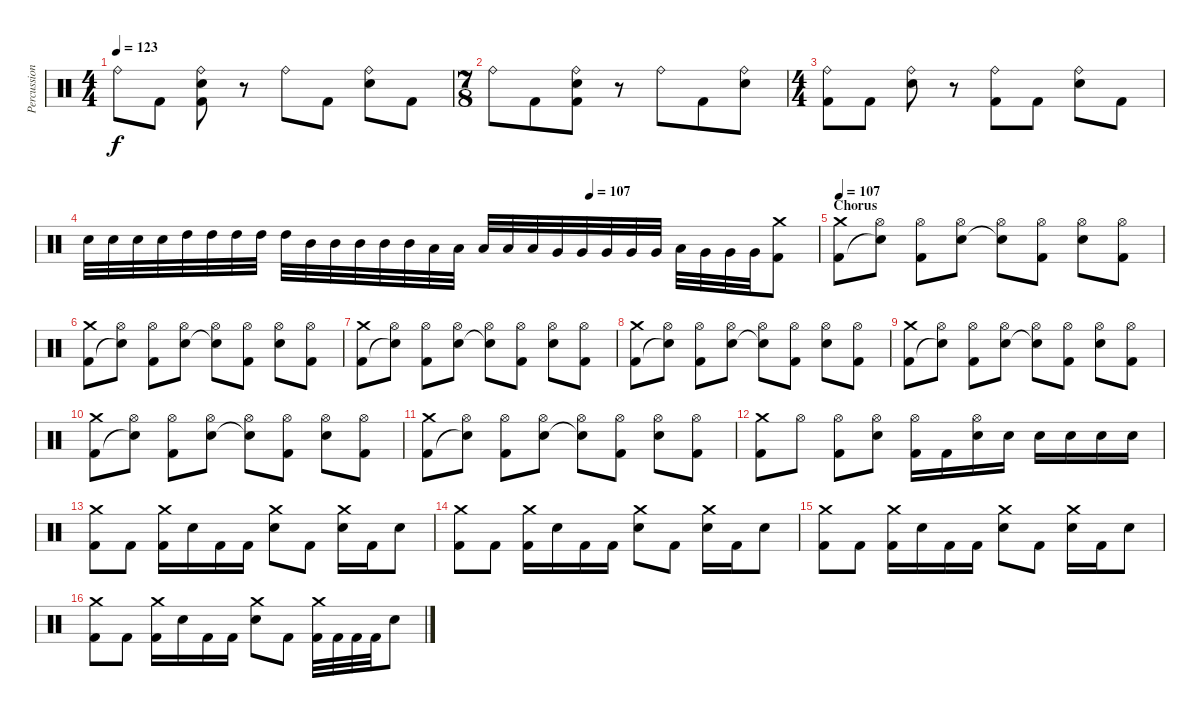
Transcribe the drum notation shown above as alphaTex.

\track ("Percussions" "Percussion") {instrument percussion}
\staff {score}
\articulation defaults
\ts (4 4)
\tempo 123
\clef neutral
\ks c "Ride (bell)".8{dy f} "Kick (hit) 2".8
("Ride (bell)" "Electric Snare (hit)" "Kick (hit) 2").8 r.8 "Ride (bell)".8 "Kick (hit) 2".8 ("Ride (bell)" "Electric Snare (hit)").8 "Kick (hit) 2".8 |
\ts (7 8)
"Ride (bell)".8 "Kick (hit) 2".8 ("Ride (bell)" "Electric Snare (hit)" "Kick (hit) 2").8 r.8 "Ride (bell)".8 "Kick (hit) 2".8 ("Ride (bell)" "Electric Snare (hit)").8 |
\ts (4 4)
("Ride (bell)" "Kick (hit) 2").8 "Kick (hit) 2".8 ("Ride (bell)" "Electric Snare (hit)").8 r.8 ("Ride (bell)" "Kick (hit) 2").8 "Kick (hit) 2".8 ("Ride (bell)" "Electric Snare (hit)").8 "Kick (hit) 2".8 |
\tempo (107 0.6875)
"Electric Snare (hit)".32 "Electric Snare (hit)".32 "Electric Snare (hit)".32 "Electric Snare (hit)".32 "High Tom (hit)".32 "High Tom (hit)".32 "High Tom (hit)".32 "High Tom (hit)".32 "High Tom (hit)".32 "Mid Tom (hit)".32 "Mid Tom (hit)".32 "Mid Tom (hit)".32 "Mid Tom (hit)".32 "Mid Tom (hit)".32 "Low Tom (hit)".32 "Low Tom (hit)".32 "Low Tom (hit)".32 "Low Tom (hit)".32 "Low Tom (hit)".32 "Very Low Tom (hit)".32 "Very Low Tom (hit)".32 "Very Low Tom (hit)".32 "Very Low Tom (hit)".32 "Very Low Tom (hit)".32 "Low Tom (hit)".32 "Very Low Tom (hit)".32 "Very Low Tom (hit)".32 "Very Low Tom (hit)".32 ("Crash medium (hit)" "Kick (hit) 2").8 |
\section ("" "Chorus")
\tempo 107
("Crash medium (hit)" "Kick (hit) 2").8 ("Hi-Hat (open)" "Snare (hit)"{t}).8 ("Hi-Hat (open)" "Kick (hit) 2").8 ("Hi-Hat (open)" "Electric Snare (hit)").8 ("Hi-Hat (open)" "Snare (hit)"{t}).8 ("Hi-Hat (open)" "Kick (hit) 2").8 ("Hi-Hat (open)" "Electric Snare (hit)").8 ("Hi-Hat (open)" "Kick (hit) 2").8 |
("Crash medium (hit)" "Kick (hit) 2").8 ("Hi-Hat (open)" "Snare (hit)"{t}).8 ("Hi-Hat (open)" "Kick (hit) 2").8 ("Hi-Hat (open)" "Electric Snare (hit)").8 ("Hi-Hat (open)" "Snare (hit)"{t}).8 ("Hi-Hat (open)" "Kick (hit) 2").8 ("Hi-Hat (open)" "Electric Snare (hit)").8 ("Hi-Hat (open)" "Kick (hit) 2").8 |
("Crash medium (hit)" "Kick (hit) 2").8 ("Hi-Hat (open)" "Snare (hit)"{t}).8 ("Hi-Hat (open)" "Kick (hit) 2").8 ("Hi-Hat (open)" "Electric Snare (hit)").8 ("Hi-Hat (open)" "Snare (hit)"{t}).8 ("Hi-Hat (open)" "Kick (hit) 2").8 ("Hi-Hat (open)" "Electric Snare (hit)").8 ("Hi-Hat (open)" "Kick (hit) 2").8 |
("Crash medium (hit)" "Kick (hit) 2").8 ("Hi-Hat (open)" "Snare (hit)"{t}).8 ("Hi-Hat (open)" "Kick (hit) 2").8 ("Hi-Hat (open)" "Electric Snare (hit)").8 ("Hi-Hat (open)" "Snare (hit)"{t}).8 ("Hi-Hat (open)" "Kick (hit) 2").8 ("Hi-Hat (open)" "Electric Snare (hit)").8 ("Hi-Hat (open)" "Kick (hit) 2").8 |
("Crash medium (hit)" "Kick (hit) 2").8 ("Hi-Hat (open)" "Snare (hit)"{t}).8 ("Hi-Hat (open)" "Kick (hit) 2").8 ("Hi-Hat (open)" "Electric Snare (hit)").8 ("Hi-Hat (open)" "Snare (hit)"{t}).8 ("Hi-Hat (open)" "Kick (hit) 2").8 ("Hi-Hat (open)" "Electric Snare (hit)").8 ("Hi-Hat (open)" "Kick (hit) 2").8 |
("Crash medium (hit)" "Kick (hit) 2").8 ("Hi-Hat (open)" "Snare (hit)"{t}).8 ("Hi-Hat (open)" "Kick (hit) 2").8 ("Hi-Hat (open)" "Electric Snare (hit)").8 ("Hi-Hat (open)" "Snare (hit)"{t}).8 ("Hi-Hat (open)" "Kick (hit) 2").8 ("Hi-Hat (open)" "Electric Snare (hit)").8 ("Hi-Hat (open)" "Kick (hit) 2").8 |
("Crash medium (hit)" "Kick (hit) 2").8 ("Hi-Hat (open)" "Snare (hit)"{t}).8 ("Hi-Hat (open)" "Kick (hit) 2").8 ("Hi-Hat (open)" "Electric Snare (hit)").8 ("Hi-Hat (open)" "Snare (hit)"{t}).8 ("Hi-Hat (open)" "Kick (hit) 2").8 ("Hi-Hat (open)" "Electric Snare (hit)").8 ("Hi-Hat (open)" "Kick (hit) 2").8 |
("Crash medium (hit)" "Kick (hit) 2").8 "Hi-Hat (open)".8 ("Hi-Hat (open)" "Kick (hit) 2").8 ("Hi-Hat (open)" "Electric Snare (hit)").8 ("Hi-Hat (open)" "Kick (hit) 2").16 "Kick (hit) 2".16 ("Hi-Hat (open)" "Electric Snare (hit)").16 "Electric Snare (hit)".16 "Electric Snare (hit)".16 "Electric Snare (hit)".16 "Electric Snare (hit)".16 "Electric Snare (hit)".16 |
("Crash medium (hit)" "Kick (hit) 2").8 "Kick (hit) 2".8 ("Crash medium (hit)" "Kick (hit) 2").16 "Electric Snare (hit)".16 "Kick (hit) 2".16 "Kick (hit) 2".16 ("Crash medium (hit)" "Electric Snare (hit)").8 "Kick (hit) 2".8 ("Crash medium (hit)" "Electric Snare (hit)").16 "Kick (hit) 2".16 "Electric Snare (hit)".8 |
("Crash medium (hit)" "Kick (hit) 2").8 "Kick (hit) 2".8 ("Crash medium (hit)" "Kick (hit) 2").16 "Electric Snare (hit)".16 "Kick (hit) 2".16 "Kick (hit) 2".16 ("Crash medium (hit)" "Electric Snare (hit)").8 "Kick (hit) 2".8 ("Crash medium (hit)" "Electric Snare (hit)").16 "Kick (hit) 2".16 "Electric Snare (hit)".8 |
("Crash medium (hit)" "Kick (hit) 2").8 "Kick (hit) 2".8 ("Crash medium (hit)" "Kick (hit) 2").16 "Electric Snare (hit)".16 "Kick (hit) 2".16 "Kick (hit) 2".16 ("Crash medium (hit)" "Electric Snare (hit)").8 "Kick (hit) 2".8 ("Crash medium (hit)" "Electric Snare (hit)").16 "Kick (hit) 2".16 "Electric Snare (hit)".8 |
("Crash medium (hit)" "Kick (hit) 2").8 "Kick (hit) 2".8 ("Crash medium (hit)" "Kick (hit) 2").16 "Electric Snare (hit)".16 "Kick (hit) 2".16 "Kick (hit) 2".16 ("Crash medium (hit)" "Electric Snare (hit)").8 "Kick (hit) 2".8 ("Crash medium (hit)" "Kick (hit) 2").32 "Kick (hit) 2".32 "Kick (hit) 2".32 "Kick (hit) 2".32 "Electric Snare (hit)".8
